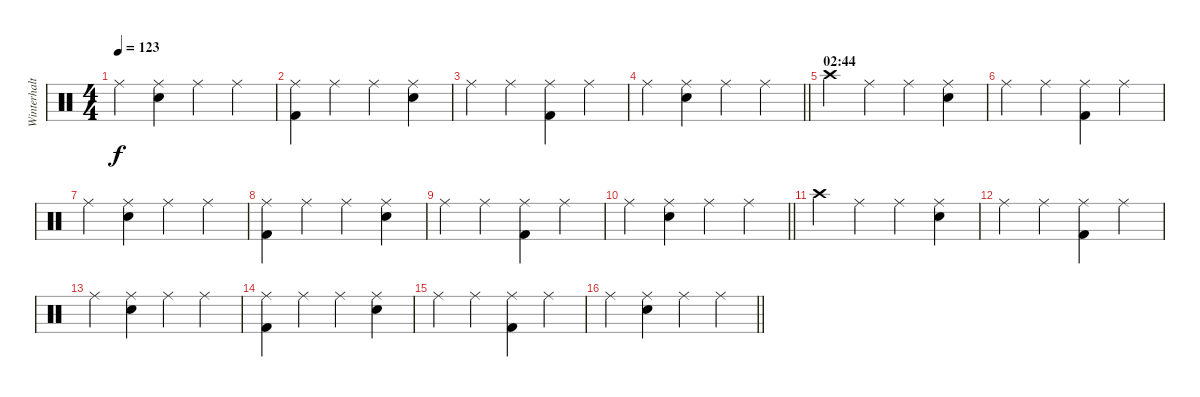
\track ("Winterhalten" "Winterhalt") {instrument percussion}
\staff {score}
\articulation defaults
\ts (4 4)
\tempo 123
\clef neutral
\ks c "Ride (middle)".4{dy f}
("Ride (middle)" "Snare (hit) 2").4 "Ride (middle)".4 "Ride (middle)".4 |
("Ride (middle)" "Kick (hit) 2").4 "Ride (middle)".4 "Ride (middle)".4 ("Ride (middle)" "Snare (hit) 2").4 |
"Ride (middle)".4 "Ride (middle)".4 ("Ride (middle)" "Kick (hit) 2").4 "Ride (middle)".4 |
\barLineRight lightlight "Ride (middle)".4
("Ride (middle)" "Snare (hit) 2").4 "Ride (middle)".4 "Ride (middle)".4 |
\section ("" "02:44")
"Crash high (hit)".4 "Ride (middle)".4 "Ride (middle)".4 ("Ride (middle)" "Snare (hit) 2").4 |
"Ride (middle)".4 "Ride (middle)".4 ("Ride (middle)" "Kick (hit) 2").4 "Ride (middle)".4 |
"Ride (middle)".4 ("Ride (middle)" "Snare (hit) 2").4 "Ride (middle)".4 "Ride (middle)".4 |
("Ride (middle)" "Kick (hit) 2").4 "Ride (middle)".4 "Ride (middle)".4 ("Ride (middle)" "Snare (hit) 2").4 |
"Ride (middle)".4 "Ride (middle)".4 ("Ride (middle)" "Kick (hit) 2").4 "Ride (middle)".4 |
\barLineRight lightlight "Ride (middle)".4
("Ride (middle)" "Snare (hit) 2").4 "Ride (middle)".4 "Ride (middle)".4 |
"Crash high (hit)".4 "Ride (middle)".4 "Ride (middle)".4 ("Ride (middle)" "Snare (hit) 2").4 |
"Ride (middle)".4 "Ride (middle)".4 ("Ride (middle)" "Kick (hit) 2").4 "Ride (middle)".4 |
"Ride (middle)".4 ("Ride (middle)" "Snare (hit) 2").4 "Ride (middle)".4 "Ride (middle)".4 |
("Ride (middle)" "Kick (hit) 2").4 "Ride (middle)".4 "Ride (middle)".4 ("Ride (middle)" "Snare (hit) 2").4 |
"Ride (middle)".4 "Ride (middle)".4 ("Ride (middle)" "Kick (hit) 2").4 "Ride (middle)".4 |
\barLineRight lightlight "Ride (middle)".4
("Ride (middle)" "Snare (hit) 2").4 "Ride (middle)".4 "Ride (middle)".4
